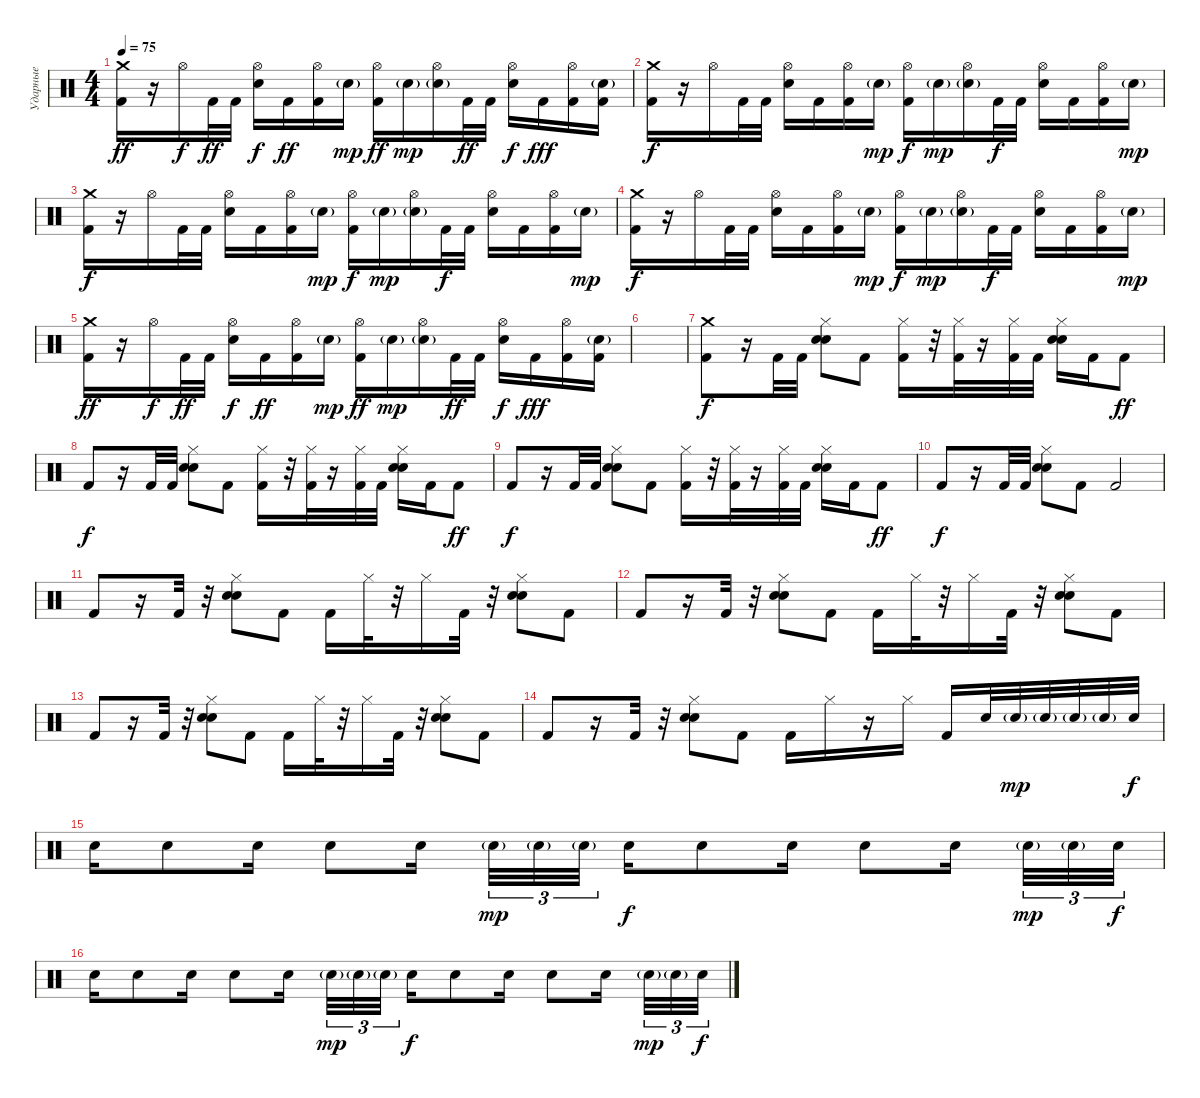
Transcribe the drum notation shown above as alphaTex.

\track ("Ударные" "Ударные") {instrument percussion}
\staff {score}
\articulation defaults
\ts (4 4)
\tempo 75
\clef neutral
\ks c
("Crash medium (hit)" "Kick (hit) 2").16{dy ff} r.16 "Hi-Hat (open)".16{dy f} "Kick (hit) 2".32{dy ff} "Kick (hit) 2".32 ("Hi-Hat (open)" "Electric Snare (hit)").16{dy f} "Kick (hit) 2".16{dy ff} ("Hi-Hat (open)" "Kick (hit) 2").16 "Electric Snare (hit)"{g}.16{dy mp} ("Hi-Hat (open)" "Kick (hit) 2").16{dy ff} "Electric Snare (hit)"{g}.16{dy mp} ("Hi-Hat (open)" "Electric Snare (hit)"{g}).16 "Kick (hit) 2".32{dy ff} "Kick (hit) 2".32 ("Hi-Hat (open)" "Electric Snare (hit)").16{dy f} "Kick (hit) 2".16{dy fff} ("Hi-Hat (open)" "Kick (hit) 2").16 ("Electric Snare (hit)"{g} "Kick (hit) 2").16 |
("Crash medium (hit)" "Kick (hit) 2").16{dy f} r.16 "Hi-Hat (open)".16 "Kick (hit) 2".32 "Kick (hit) 2".32 ("Hi-Hat (open)" "Electric Snare (hit)").16 "Kick (hit) 2".16 ("Hi-Hat (open)" "Kick (hit) 2").16 "Electric Snare (hit)"{g}.16{dy mp} ("Hi-Hat (open)" "Kick (hit) 2").16{dy f} "Electric Snare (hit)"{g}.16{dy mp} ("Hi-Hat (open)" "Electric Snare (hit)"{g}).16 "Kick (hit) 2".32{dy f} "Kick (hit) 2".32 ("Hi-Hat (open)" "Electric Snare (hit)").16 "Kick (hit) 2".16 ("Hi-Hat (open)" "Kick (hit) 2").16 "Electric Snare (hit)"{g}.16{dy mp} |
("Crash medium (hit)" "Kick (hit) 2").16{dy f} r.16 "Hi-Hat (open)".16 "Kick (hit) 2".32 "Kick (hit) 2".32 ("Hi-Hat (open)" "Electric Snare (hit)").16 "Kick (hit) 2".16 ("Hi-Hat (open)" "Kick (hit) 2").16 "Electric Snare (hit)"{g}.16{dy mp} ("Hi-Hat (open)" "Kick (hit) 2").16{dy f} "Electric Snare (hit)"{g}.16{dy mp} ("Hi-Hat (open)" "Electric Snare (hit)"{g}).16 "Kick (hit) 2".32{dy f} "Kick (hit) 2".32 ("Hi-Hat (open)" "Electric Snare (hit)").16 "Kick (hit) 2".16 ("Hi-Hat (open)" "Kick (hit) 2").16 "Electric Snare (hit)"{g}.16{dy mp} |
("Crash medium (hit)" "Kick (hit) 2").16{dy f} r.16 "Hi-Hat (open)".16 "Kick (hit) 2".32 "Kick (hit) 2".32 ("Hi-Hat (open)" "Electric Snare (hit)").16 "Kick (hit) 2".16 ("Hi-Hat (open)" "Kick (hit) 2").16 "Electric Snare (hit)"{g}.16{dy mp} ("Hi-Hat (open)" "Kick (hit) 2").16{dy f} "Electric Snare (hit)"{g}.16{dy mp} ("Hi-Hat (open)" "Electric Snare (hit)"{g}).16 "Kick (hit) 2".32{dy f} "Kick (hit) 2".32 ("Hi-Hat (open)" "Electric Snare (hit)").16 "Kick (hit) 2".16 ("Hi-Hat (open)" "Kick (hit) 2").16 "Electric Snare (hit)"{g}.16{dy mp} |
("Crash medium (hit)" "Kick (hit) 2").16{dy ff} r.16 "Hi-Hat (open)".16{dy f} "Kick (hit) 2".32{dy ff} "Kick (hit) 2".32 ("Hi-Hat (open)" "Electric Snare (hit)").16{dy f} "Kick (hit) 2".16{dy ff} ("Hi-Hat (open)" "Kick (hit) 2").16 "Electric Snare (hit)"{g}.16{dy mp} ("Hi-Hat (open)" "Kick (hit) 2").16{dy ff} "Electric Snare (hit)"{g}.16{dy mp} ("Hi-Hat (open)" "Electric Snare (hit)"{g}).16 "Kick (hit) 2".32{dy ff} "Kick (hit) 2".32 ("Hi-Hat (open)" "Electric Snare (hit)").16{dy f} "Kick (hit) 2".16{dy fff} ("Hi-Hat (open)" "Kick (hit) 2").16 ("Electric Snare (hit)"{g} "Kick (hit) 2").16 |
|
("Crash medium (hit)" "Kick (hit) 2").8{dy f} r.16 "Kick (hit) 2".32 "Kick (hit) 2".32 ("Hi-Hat (closed)" "Snare (hit) 2" "Hand Clap (hit)").8 "Kick (hit) 2".8 ("Hi-Hat (closed)" "Kick (hit) 2").16 r.32 ("Hi-Hat (closed)" "Kick (hit) 2").32 r.16 ("Hi-Hat (closed)" "Kick (hit) 2").32 "Kick (hit) 2".32 ("Hi-Hat (closed)" "Snare (hit) 2" "Hand Clap (hit)").16 "Kick (hit) 2".16 "Kick (hit) 2".8{dy ff} |
"Kick (hit) 2".8{dy f} r.16 "Kick (hit) 2".32 "Kick (hit) 2".32 ("Hi-Hat (closed)" "Snare (hit) 2" "Hand Clap (hit)").8 "Kick (hit) 2".8 ("Hi-Hat (closed)" "Kick (hit) 2").16 r.32 ("Hi-Hat (closed)" "Kick (hit) 2").32 r.16 ("Hi-Hat (closed)" "Kick (hit) 2").32 "Kick (hit) 2".32 ("Hi-Hat (closed)" "Snare (hit) 2" "Hand Clap (hit)").16 "Kick (hit) 2".16 "Kick (hit) 2".8{dy ff} |
"Kick (hit) 2".8{dy f} r.16 "Kick (hit) 2".32 "Kick (hit) 2".32 ("Hi-Hat (closed)" "Snare (hit) 2" "Hand Clap (hit)").8 "Kick (hit) 2".8 ("Hi-Hat (closed)" "Kick (hit) 2").16 r.32 ("Hi-Hat (closed)" "Kick (hit) 2").32 r.16 ("Hi-Hat (closed)" "Kick (hit) 2").32 "Kick (hit) 2".32 ("Hi-Hat (closed)" "Snare (hit) 2" "Hand Clap (hit)").16 "Kick (hit) 2".16 "Kick (hit) 2".8{dy ff} |
"Kick (hit) 2".8{dy f} r.16 "Kick (hit) 2".32 "Kick (hit) 2".32 ("Hi-Hat (closed)" "Snare (hit) 2" "Hand Clap (hit)").8 "Kick (hit) 2".8 "Kick (hit) 2".2 |
"Kick (hit) 2".8 r.16 "Kick (hit) 2".32 r.32 ("Hi-Hat (closed)" "Snare (hit) 2" "Hand Clap (hit)").8 "Kick (hit) 2".8 "Kick (hit) 2".16 "Hi-Hat (closed)".32 r.32 "Hi-Hat (closed)".16 "Kick (hit) 2".32 r.32 ("Hi-Hat (closed)" "Snare (hit) 2" "Hand Clap (hit)").8 "Kick (hit) 2".8 |
"Kick (hit) 2".8 r.16 "Kick (hit) 2".32 r.32 ("Hi-Hat (closed)" "Snare (hit) 2" "Hand Clap (hit)").8 "Kick (hit) 2".8 "Kick (hit) 2".16 "Hi-Hat (closed)".32 r.32 "Hi-Hat (closed)".16 "Kick (hit) 2".32 r.32 ("Hi-Hat (closed)" "Snare (hit) 2" "Hand Clap (hit)").8 "Kick (hit) 2".8 |
"Kick (hit) 2".8 r.16 "Kick (hit) 2".32 r.32 ("Hi-Hat (closed)" "Snare (hit) 2" "Hand Clap (hit)").8 "Kick (hit) 2".8 "Kick (hit) 2".16 "Hi-Hat (closed)".32 r.32 "Hi-Hat (closed)".16 "Kick (hit) 2".32 r.32 ("Hi-Hat (closed)" "Snare (hit) 2" "Hand Clap (hit)").8 "Kick (hit) 2".8 |
"Kick (hit) 2".8 r.16 "Kick (hit) 2".32 r.32 ("Hi-Hat (closed)" "Snare (hit) 2" "Hand Clap (hit)").8 "Kick (hit) 2".8 "Kick (hit) 2".16 "Hi-Hat (closed)".16 r.16 "Hi-Hat (closed)".16 "Kick (hit) 2".16 "Snare (hit) 2".32 "Snare (hit) 2"{g}.32{dy mp} "Snare (hit) 2"{g}.32 "Snare (hit) 2"{g}.32 "Snare (hit) 2"{g}.32 "Snare (hit) 2".32{dy f} |
"Snare (hit) 2".16 "Snare (hit) 2".8 "Snare (hit) 2".16 "Snare (hit) 2".8 "Snare (hit) 2".16{beam splitsecondary} "Snare (hit) 2"{g}.32{tu (3 2) dy mp} "Snare (hit) 2"{g}.32{tu (3 2)} "Snare (hit) 2"{g}.32{tu (3 2)} "Snare (hit) 2".16{dy f} "Snare (hit) 2".8 "Snare (hit) 2".16 "Snare (hit) 2".8 "Snare (hit) 2".16{beam splitsecondary} "Snare (hit) 2"{g}.32{tu (3 2) dy mp} "Snare (hit) 2"{g}.32{tu (3 2)} "Snare (hit) 2".32{tu (3 2) dy f} |
"Snare (hit) 2".16 "Snare (hit) 2".8 "Snare (hit) 2".16 "Snare (hit) 2".8 "Snare (hit) 2".16{beam splitsecondary} "Snare (hit) 2"{g}.32{tu (3 2) dy mp} "Snare (hit) 2"{g}.32{tu (3 2)} "Snare (hit) 2"{g}.32{tu (3 2)} "Snare (hit) 2".16{dy f} "Snare (hit) 2".8 "Snare (hit) 2".16 "Snare (hit) 2".8 "Snare (hit) 2".16{beam splitsecondary} "Snare (hit) 2"{g}.32{tu (3 2) dy mp} "Snare (hit) 2"{g}.32{tu (3 2)} "Snare (hit) 2".32{tu (3 2) dy f}
